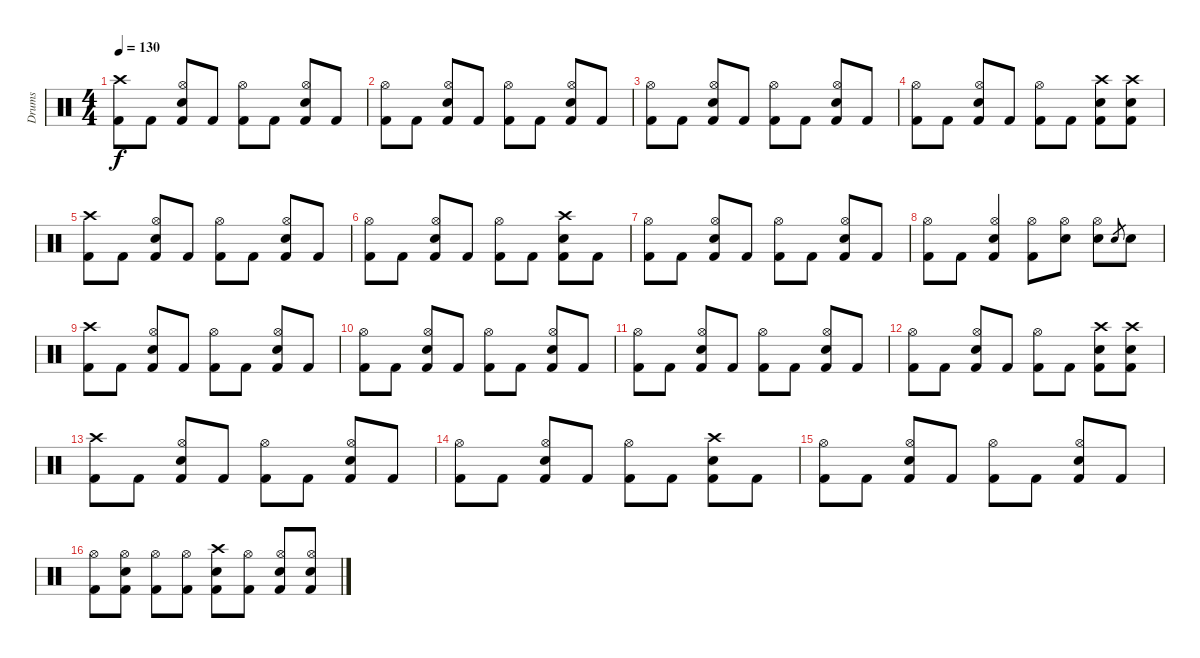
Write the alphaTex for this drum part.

\track ("Drums" "Drums") {instrument percussion}
\staff {score}
\articulation defaults
\ts (4 4)
\tempo 130
\clef neutral
\ks c
("Crash high (hit)" "Kick (hit) 2").8{dy f} "Kick (hit) 2".8 ("Hi-Hat (open)" "Electric Snare (hit)" "Kick (hit) 2").8 "Kick (hit) 2".8 ("Hi-Hat (open)" "Kick (hit) 2").8 "Kick (hit) 2".8 ("Hi-Hat (open)" "Electric Snare (hit)" "Kick (hit) 2").8 "Kick (hit) 2".8 |
("Hi-Hat (open)" "Kick (hit) 2").8 "Kick (hit) 2".8 ("Hi-Hat (open)" "Electric Snare (hit)" "Kick (hit) 2").8 "Kick (hit) 2".8 ("Hi-Hat (open)" "Kick (hit) 2").8 "Kick (hit) 2".8 ("Hi-Hat (open)" "Electric Snare (hit)" "Kick (hit) 2").8 "Kick (hit) 2".8 |
("Hi-Hat (open)" "Kick (hit) 2").8 "Kick (hit) 2".8 ("Hi-Hat (open)" "Electric Snare (hit)" "Kick (hit) 2").8 "Kick (hit) 2".8 ("Hi-Hat (open)" "Kick (hit) 2").8 "Kick (hit) 2".8 ("Hi-Hat (open)" "Electric Snare (hit)" "Kick (hit) 2").8 "Kick (hit) 2".8 |
("Hi-Hat (open)" "Kick (hit) 2").8 "Kick (hit) 2".8 ("Hi-Hat (open)" "Electric Snare (hit)" "Kick (hit) 2").8 "Kick (hit) 2".8 ("Hi-Hat (open)" "Kick (hit) 2").8 "Kick (hit) 2".8 ("Crash high (hit)" "Electric Snare (hit)" "Kick (hit) 2").8 ("Crash high (hit)" "Electric Snare (hit)" "Kick (hit) 2").8 |
("Crash high (hit)" "Kick (hit) 2").8 "Kick (hit) 2".8 ("Hi-Hat (open)" "Electric Snare (hit)" "Kick (hit) 2").8 "Kick (hit) 2".8 ("Hi-Hat (open)" "Kick (hit) 2").8 "Kick (hit) 2".8 ("Hi-Hat (open)" "Electric Snare (hit)" "Kick (hit) 2").8 "Kick (hit) 2".8 |
("Hi-Hat (open)" "Kick (hit) 2").8 "Kick (hit) 2".8 ("Hi-Hat (open)" "Electric Snare (hit)" "Kick (hit) 2").8 "Kick (hit) 2".8 ("Hi-Hat (open)" "Kick (hit) 2").8 "Kick (hit) 2".8 ("Crash high (hit)" "Electric Snare (hit)" "Kick (hit) 2").8 "Kick (hit) 2".8 |
("Hi-Hat (open)" "Kick (hit) 2").8 "Kick (hit) 2".8 ("Hi-Hat (open)" "Electric Snare (hit)" "Kick (hit) 2").8 "Kick (hit) 2".8 ("Hi-Hat (open)" "Kick (hit) 2").8 "Kick (hit) 2".8 ("Hi-Hat (open)" "Electric Snare (hit)" "Kick (hit) 2").8 "Kick (hit) 2".8 |
("Hi-Hat (open)" "Kick (hit) 2").8 "Kick (hit) 2".8 ("Hi-Hat (open)" "Electric Snare (hit)" "Kick (hit) 2").4 ("Hi-Hat (open)" "Kick (hit) 2").8 ("Hi-Hat (open)" "Electric Snare (hit)").8 ("Hi-Hat (open)" "Electric Snare (hit)").8 "Electric Snare (hit)".8{gr} "Electric Snare (hit)".8 |
("Crash high (hit)" "Kick (hit) 2").8 "Kick (hit) 2".8 ("Hi-Hat (open)" "Electric Snare (hit)" "Kick (hit) 2").8 "Kick (hit) 2".8 ("Hi-Hat (open)" "Kick (hit) 2").8 "Kick (hit) 2".8 ("Hi-Hat (open)" "Electric Snare (hit)" "Kick (hit) 2").8 "Kick (hit) 2".8 |
("Hi-Hat (open)" "Kick (hit) 2").8 "Kick (hit) 2".8 ("Hi-Hat (open)" "Electric Snare (hit)" "Kick (hit) 2").8 "Kick (hit) 2".8 ("Hi-Hat (open)" "Kick (hit) 2").8 "Kick (hit) 2".8 ("Hi-Hat (open)" "Electric Snare (hit)" "Kick (hit) 2").8 "Kick (hit) 2".8 |
("Hi-Hat (open)" "Kick (hit) 2").8 "Kick (hit) 2".8 ("Hi-Hat (open)" "Electric Snare (hit)" "Kick (hit) 2").8 "Kick (hit) 2".8 ("Hi-Hat (open)" "Kick (hit) 2").8 "Kick (hit) 2".8 ("Hi-Hat (open)" "Electric Snare (hit)" "Kick (hit) 2").8 "Kick (hit) 2".8 |
("Hi-Hat (open)" "Kick (hit) 2").8 "Kick (hit) 2".8 ("Hi-Hat (open)" "Electric Snare (hit)" "Kick (hit) 2").8 "Kick (hit) 2".8 ("Hi-Hat (open)" "Kick (hit) 2").8 "Kick (hit) 2".8 ("Crash high (hit)" "Electric Snare (hit)" "Kick (hit) 2").8 ("Crash high (hit)" "Electric Snare (hit)" "Kick (hit) 2").8 |
("Crash high (hit)" "Kick (hit) 2").8 "Kick (hit) 2".8 ("Hi-Hat (open)" "Electric Snare (hit)" "Kick (hit) 2").8 "Kick (hit) 2".8 ("Hi-Hat (open)" "Kick (hit) 2").8 "Kick (hit) 2".8 ("Hi-Hat (open)" "Electric Snare (hit)" "Kick (hit) 2").8 "Kick (hit) 2".8 |
("Hi-Hat (open)" "Kick (hit) 2").8 "Kick (hit) 2".8 ("Hi-Hat (open)" "Electric Snare (hit)" "Kick (hit) 2").8 "Kick (hit) 2".8 ("Hi-Hat (open)" "Kick (hit) 2").8 "Kick (hit) 2".8 ("Crash high (hit)" "Electric Snare (hit)" "Kick (hit) 2").8 "Kick (hit) 2".8 |
("Hi-Hat (open)" "Kick (hit) 2").8 "Kick (hit) 2".8 ("Hi-Hat (open)" "Electric Snare (hit)" "Kick (hit) 2").8 "Kick (hit) 2".8 ("Hi-Hat (open)" "Kick (hit) 2").8 "Kick (hit) 2".8 ("Hi-Hat (open)" "Electric Snare (hit)" "Kick (hit) 2").8 "Kick (hit) 2".8 |
("Hi-Hat (open)" "Kick (hit) 2").8 ("Hi-Hat (open)" "Electric Snare (hit)" "Kick (hit) 2").8 ("Hi-Hat (open)" "Kick (hit) 2").8 ("Hi-Hat (open)" "Kick (hit) 2").8 ("Crash high (hit)" "Electric Snare (hit)" "Kick (hit) 2").8 ("Hi-Hat (open)" "Kick (hit) 2").8 ("Hi-Hat (open)" "Electric Snare (hit)" "Kick (hit) 2").8 ("Hi-Hat (open)" "Electric Snare (hit)" "Kick (hit) 2").8
